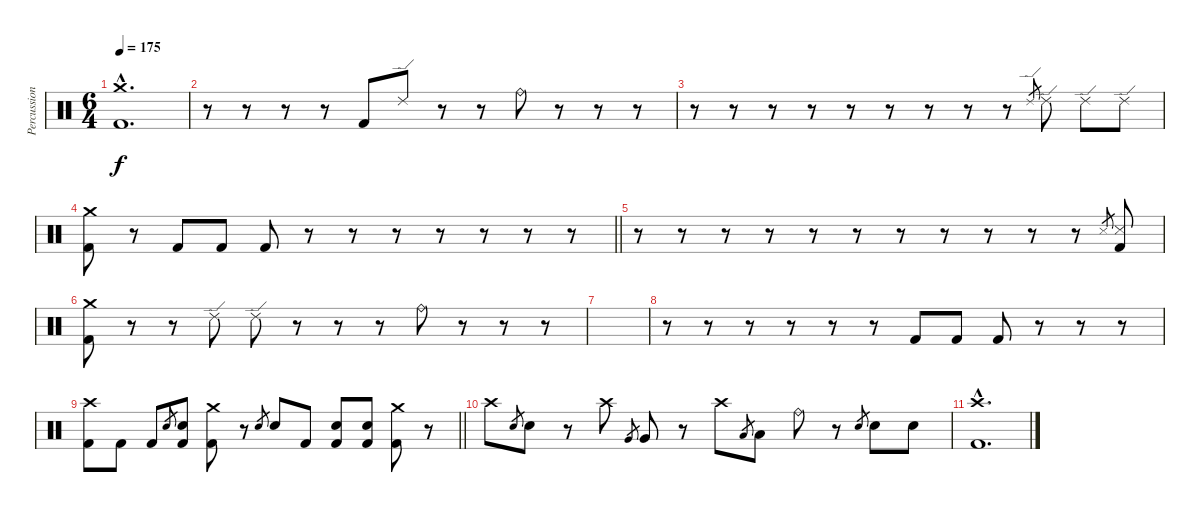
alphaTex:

\track ("Percussion" "Percussion") {instrument percussion}
\staff {score}
\articulation defaults
\ts (6 4)
\tempo 175
\clef neutral
\ks c
("Crash medium (hit)"{hac} "Kick (hit) 2"{hac}).1{d dy f} |
r.8 r.8 r.8 r.8 "Kick (hit) 2".8 "Ride (edge) 2".8 r.8 r.8 "Ride (bell)".8 r.8 r.8 r.8 |
r.8 r.8 r.8 r.8 r.8 r.8 r.8 r.8 r.8 "Ride (edge) 2".8{gr} "Ride (edge) 2".8 "Ride (edge) 2".8 "Ride (edge) 2".8 |
\barLineRight lightlight
("Crash medium (hit)" "Kick (hit) 2").8 r.8 "Kick (hit) 2".8 "Kick (hit) 2".8 "Kick (hit) 2".8 r.8 r.8 r.8 r.8 r.8 r.8 r.8 |
r.8 r.8 r.8 r.8 r.8 r.8 r.8 r.8 r.8 r.8 r.8 "Snare (side stick) 3".8{gr} ("Snare (side stick) 3" "Kick (hit) 2").8 |
("Crash medium (hit)" "Kick (hit) 2").8 r.8 r.8 "Ride (edge) 2".8 "Ride (edge) 2".8 r.8 r.8 r.8 "Ride (bell)".8 r.8 r.8 r.8 |
|
r.8 r.8 r.8 r.8 r.8 r.8 "Kick (hit) 2".8 "Kick (hit) 2".8 "Kick (hit) 2".8 r.8 r.8 r.8 |
\barLineRight lightlight
("Crash high (hit)" "Kick (hit) 2").8 "Kick (hit) 2".8 "Kick (hit) 2".8 "Electric Snare (hit)".8{gr} ("Electric Snare (hit)" "Kick (hit) 2").8 ("Crash medium (hit)" "Kick (hit) 2").8 r.8 "Electric Snare (hit)".8{gr} "Electric Snare (hit)".8 "Kick (hit) 2".8 ("Electric Snare (hit)" "Kick (hit) 2").8 ("Electric Snare (hit)" "Kick (hit) 2").8 ("Crash medium (hit)" "Kick (hit) 2").8 r.8 |
"Crash high (hit)".8 "Electric Snare (hit)".8{gr} "Electric Snare (hit)".8 r.8 "Crash high (hit)".8 "Very Low Tom (hit)".8{gr} "Very Low Tom (hit)".8 r.8 "Crash high (hit)".8 "Low Floor Tom (hit)".8{gr} "Low Floor Tom (hit)".8 "Ride (bell)".8 r.8 "Electric Snare (hit)".8{gr} "Electric Snare (hit)".8 "Electric Snare (hit)".8 |
("Crash high (hit)"{hac} "Kick (hit) 2"{hac}).1{d}
